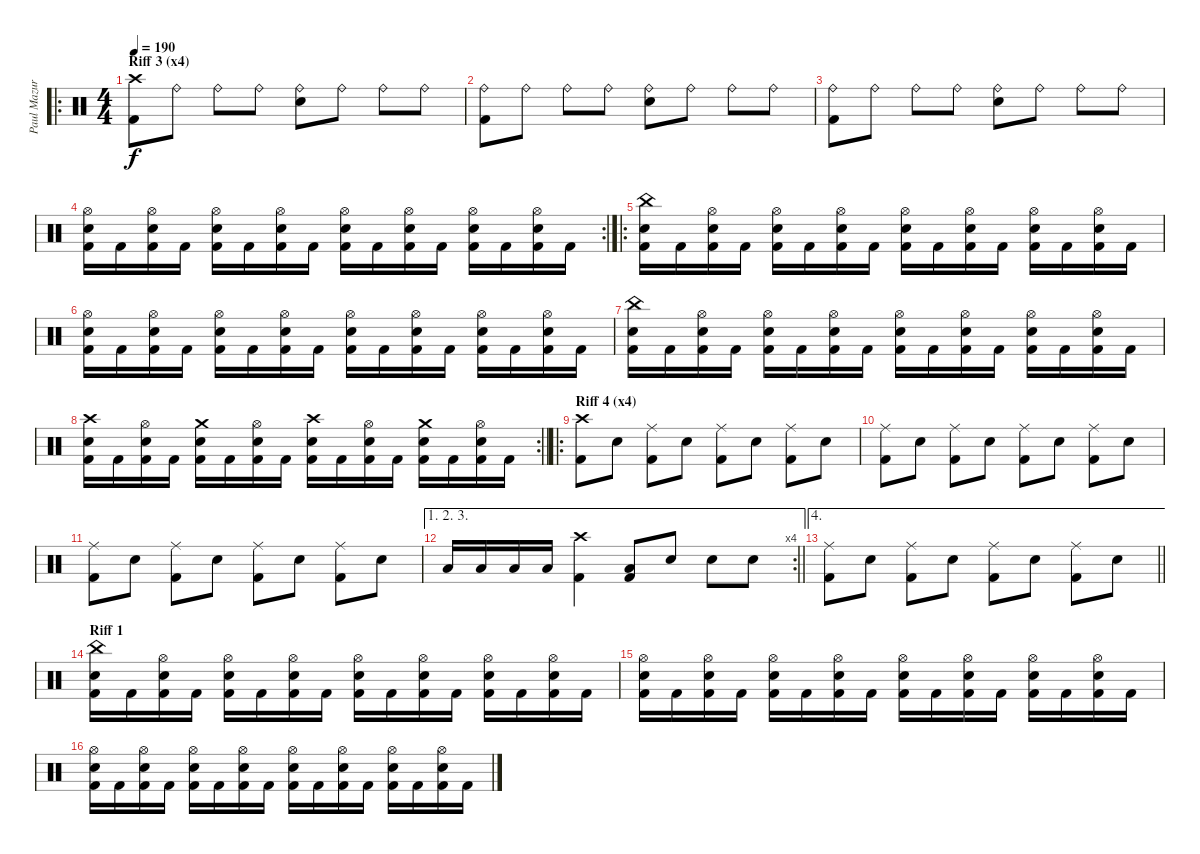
\track ("Paul Mazurkiewicz" "Paul Mazur") {instrument percussion}
\staff {score}
\articulation defaults
\ro
\ts (4 4)
\section ("" "Riff 3 (x4)")
\tempo 190
\clef neutral
\ks c
("Crash high (hit)" "Kick (hit) 2").8{dy f} "Ride (bell)".8 "Ride (bell)".8 "Ride (bell)".8 ("Ride (bell)" "Electric Snare (hit)").8 "Ride (bell)".8 "Ride (bell)".8 "Ride (bell)".8 |
("Ride (bell)" "Kick (hit) 2").8 "Ride (bell)".8 "Ride (bell)".8 "Ride (bell)".8 ("Ride (bell)" "Electric Snare (hit)").8 "Ride (bell)".8 "Ride (bell)".8 "Ride (bell)".8 |
("Ride (bell)" "Kick (hit) 2").8 "Ride (bell)".8 "Ride (bell)".8 "Ride (bell)".8 ("Ride (bell)" "Electric Snare (hit)").8 "Ride (bell)".8 "Ride (bell)".8 "Ride (bell)".8 |
\rc 2
("Hi-Hat (open)" "Electric Snare (hit)" "Kick (hit) 2").16 "Kick (hit) 2".16 ("Hi-Hat (open)" "Electric Snare (hit)" "Kick (hit) 2").16 "Kick (hit) 2".16 ("Hi-Hat (open)" "Electric Snare (hit)" "Kick (hit) 2").16 "Kick (hit) 2".16 ("Hi-Hat (open)" "Electric Snare (hit)" "Kick (hit) 2").16 "Kick (hit) 2".16 ("Hi-Hat (open)" "Electric Snare (hit)" "Kick (hit) 2").16 "Kick (hit) 2".16 ("Hi-Hat (open)" "Electric Snare (hit)" "Kick (hit) 2").16 "Kick (hit) 2".16 ("Hi-Hat (open)" "Electric Snare (hit)" "Kick (hit) 2").16 "Kick (hit) 2".16 ("Hi-Hat (open)" "Electric Snare (hit)" "Kick (hit) 2").16 "Kick (hit) 2".16 |
\ro
("China (hit)" "Electric Snare (hit)" "Kick (hit) 2").16 "Kick (hit) 2".16 ("Hi-Hat (open)" "Electric Snare (hit)" "Kick (hit) 2").16 "Kick (hit) 2".16 ("Hi-Hat (open)" "Electric Snare (hit)" "Kick (hit) 2").16 "Kick (hit) 2".16 ("Hi-Hat (open)" "Electric Snare (hit)" "Kick (hit) 2").16 "Kick (hit) 2".16 ("Hi-Hat (open)" "Electric Snare (hit)" "Kick (hit) 2").16 "Kick (hit) 2".16 ("Hi-Hat (open)" "Electric Snare (hit)" "Kick (hit) 2").16 "Kick (hit) 2".16 ("Hi-Hat (open)" "Electric Snare (hit)" "Kick (hit) 2").16 "Kick (hit) 2".16 ("Hi-Hat (open)" "Electric Snare (hit)" "Kick (hit) 2").16 "Kick (hit) 2".16 |
("Hi-Hat (open)" "Electric Snare (hit)" "Kick (hit) 2").16 "Kick (hit) 2".16 ("Hi-Hat (open)" "Electric Snare (hit)" "Kick (hit) 2").16 "Kick (hit) 2".16 ("Hi-Hat (open)" "Electric Snare (hit)" "Kick (hit) 2").16 "Kick (hit) 2".16 ("Hi-Hat (open)" "Electric Snare (hit)" "Kick (hit) 2").16 "Kick (hit) 2".16 ("Hi-Hat (open)" "Electric Snare (hit)" "Kick (hit) 2").16 "Kick (hit) 2".16 ("Hi-Hat (open)" "Electric Snare (hit)" "Kick (hit) 2").16 "Kick (hit) 2".16 ("Hi-Hat (open)" "Electric Snare (hit)" "Kick (hit) 2").16 "Kick (hit) 2".16 ("Hi-Hat (open)" "Electric Snare (hit)" "Kick (hit) 2").16 "Kick (hit) 2".16 |
("China (hit)" "Electric Snare (hit)" "Kick (hit) 2").16 "Kick (hit) 2".16 ("Hi-Hat (open)" "Electric Snare (hit)" "Kick (hit) 2").16 "Kick (hit) 2".16 ("Hi-Hat (open)" "Electric Snare (hit)" "Kick (hit) 2").16 "Kick (hit) 2".16 ("Hi-Hat (open)" "Electric Snare (hit)" "Kick (hit) 2").16 "Kick (hit) 2".16 ("Hi-Hat (open)" "Electric Snare (hit)" "Kick (hit) 2").16 "Kick (hit) 2".16 ("Hi-Hat (open)" "Electric Snare (hit)" "Kick (hit) 2").16 "Kick (hit) 2".16 ("Hi-Hat (open)" "Electric Snare (hit)" "Kick (hit) 2").16 "Kick (hit) 2".16 ("Hi-Hat (open)" "Electric Snare (hit)" "Kick (hit) 2").16 "Kick (hit) 2".16 |
\rc 2
\barLineRight lightlight
("Crash high (hit)" "Electric Snare (hit)" "Kick (hit) 2").16 "Kick (hit) 2".16 ("Hi-Hat (open)" "Electric Snare (hit)" "Kick (hit) 2").16 "Kick (hit) 2".16 ("Crash medium (hit)" "Electric Snare (hit)" "Kick (hit) 2").16 "Kick (hit) 2".16 ("Hi-Hat (open)" "Electric Snare (hit)" "Kick (hit) 2").16 "Kick (hit) 2".16 ("Crash high (hit)" "Electric Snare (hit)" "Kick (hit) 2").16 "Kick (hit) 2".16 ("Hi-Hat (open)" "Electric Snare (hit)" "Kick (hit) 2").16 "Kick (hit) 2".16 ("Crash medium (hit)" "Electric Snare (hit)" "Kick (hit) 2").16 "Kick (hit) 2".16 ("Hi-Hat (open)" "Electric Snare (hit)" "Kick (hit) 2").16 "Kick (hit) 2".16 |
\ro
\section ("" "Riff 4 (x4)")
("Crash high (hit)" "Kick (hit) 2").8 "Electric Snare (hit)".8 ("Ride (middle)" "Kick (hit) 2").8 "Electric Snare (hit)".8 ("Ride (middle)" "Kick (hit) 2").8 "Electric Snare (hit)".8 ("Ride (middle)" "Kick (hit) 2").8 "Electric Snare (hit)".8 |
("Ride (middle)" "Kick (hit) 2").8 "Electric Snare (hit)".8 ("Ride (middle)" "Kick (hit) 2").8 "Electric Snare (hit)".8 ("Ride (middle)" "Kick (hit) 2").8 "Electric Snare (hit)".8 ("Ride (middle)" "Kick (hit) 2").8 "Electric Snare (hit)".8 |
("Ride (middle)" "Kick (hit) 2").8 "Electric Snare (hit)".8 ("Ride (middle)" "Kick (hit) 2").8 "Electric Snare (hit)".8 ("Ride (middle)" "Kick (hit) 2").8 "Electric Snare (hit)".8 ("Ride (middle)" "Kick (hit) 2").8 "Electric Snare (hit)".8 |
\ae (1 2 3)
\rc 4
\barLineRight lightlight "Low Tom (hit)".16 "Low Tom (hit)".16 "Low Tom (hit)".16 "Low Tom (hit)".16
("Crash high (hit)" "Kick (hit) 2").4 ("Low Tom (hit)" "Kick (hit) 2").8 "Electric Snare (hit)".8 "Electric Snare (hit)".8 "Electric Snare (hit)".8 |
\ae 4
\barLineRight lightlight
("Ride (middle)" "Kick (hit) 2").8 "Electric Snare (hit)".8 ("Ride (middle)" "Kick (hit) 2").8 "Electric Snare (hit)".8 ("Ride (middle)" "Kick (hit) 2").8 "Electric Snare (hit)".8 ("Ride (middle)" "Kick (hit) 2").8 "Electric Snare (hit)".8 |
\section ("" "Riff 1")
("China (hit)" "Electric Snare (hit)" "Kick (hit) 2").16 "Kick (hit) 2".16 ("Hi-Hat (open)" "Electric Snare (hit)" "Kick (hit) 2").16 "Kick (hit) 2".16 ("Hi-Hat (open)" "Electric Snare (hit)" "Kick (hit) 2").16 "Kick (hit) 2".16 ("Hi-Hat (open)" "Electric Snare (hit)" "Kick (hit) 2").16 "Kick (hit) 2".16 ("Hi-Hat (open)" "Electric Snare (hit)" "Kick (hit) 2").16 "Kick (hit) 2".16 ("Hi-Hat (open)" "Electric Snare (hit)" "Kick (hit) 2").16 "Kick (hit) 2".16 ("Hi-Hat (open)" "Electric Snare (hit)" "Kick (hit) 2").16 "Kick (hit) 2".16 ("Hi-Hat (open)" "Electric Snare (hit)" "Kick (hit) 2").16 "Kick (hit) 2".16 |
("Hi-Hat (open)" "Electric Snare (hit)" "Kick (hit) 2").16 "Kick (hit) 2".16 ("Hi-Hat (open)" "Electric Snare (hit)" "Kick (hit) 2").16 "Kick (hit) 2".16 ("Hi-Hat (open)" "Electric Snare (hit)" "Kick (hit) 2").16 "Kick (hit) 2".16 ("Hi-Hat (open)" "Electric Snare (hit)" "Kick (hit) 2").16 "Kick (hit) 2".16 ("Hi-Hat (open)" "Electric Snare (hit)" "Kick (hit) 2").16 "Kick (hit) 2".16 ("Hi-Hat (open)" "Electric Snare (hit)" "Kick (hit) 2").16 "Kick (hit) 2".16 ("Hi-Hat (open)" "Electric Snare (hit)" "Kick (hit) 2").16 "Kick (hit) 2".16 ("Hi-Hat (open)" "Electric Snare (hit)" "Kick (hit) 2").16 "Kick (hit) 2".16 |
("Hi-Hat (open)" "Electric Snare (hit)" "Kick (hit) 2").16 "Kick (hit) 2".16 ("Hi-Hat (open)" "Electric Snare (hit)" "Kick (hit) 2").16 "Kick (hit) 2".16 ("Hi-Hat (open)" "Electric Snare (hit)" "Kick (hit) 2").16 "Kick (hit) 2".16 ("Hi-Hat (open)" "Electric Snare (hit)" "Kick (hit) 2").16 "Kick (hit) 2".16 ("Hi-Hat (open)" "Electric Snare (hit)" "Kick (hit) 2").16 "Kick (hit) 2".16 ("Hi-Hat (open)" "Electric Snare (hit)" "Kick (hit) 2").16 "Kick (hit) 2".16 ("Hi-Hat (open)" "Electric Snare (hit)" "Kick (hit) 2").16 "Kick (hit) 2".16 ("Hi-Hat (open)" "Electric Snare (hit)" "Kick (hit) 2").16 "Kick (hit) 2".16
